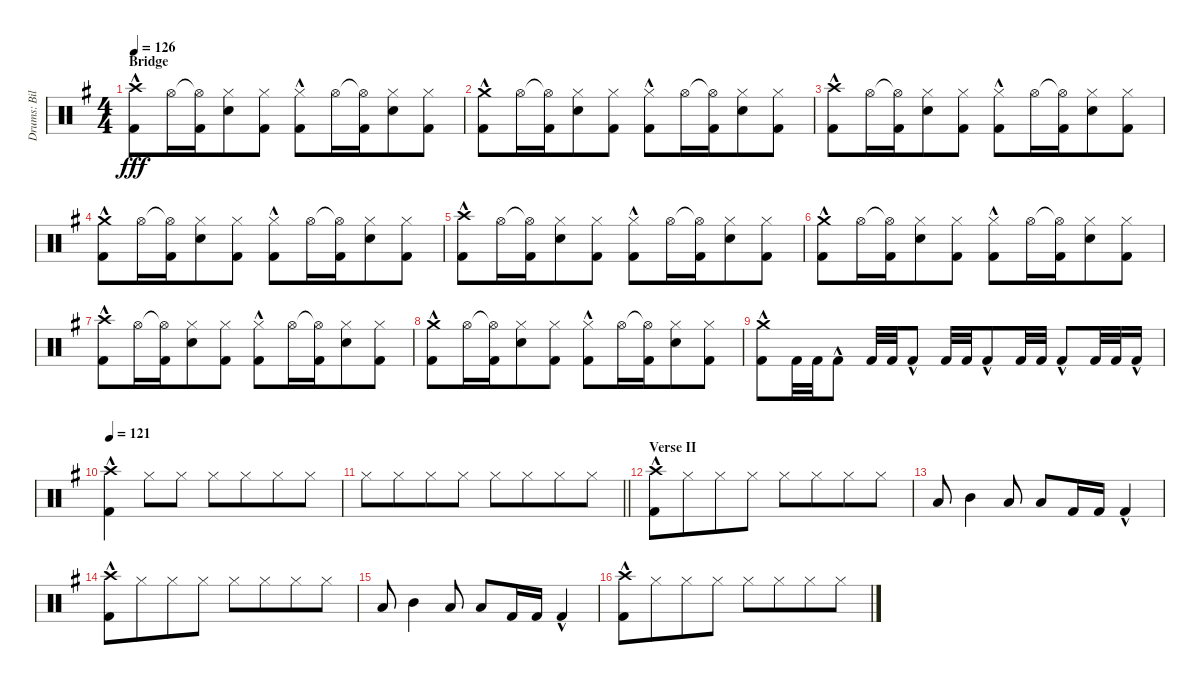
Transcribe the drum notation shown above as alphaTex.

\track ("Drums: Bill" "Drums: Bil") {instrument percussion}
\staff {score}
\articulation defaults
\ts (4 4)
\section ("" "Bridge")
\tempo 126
\clef neutral
\ks g
("Crash high (hit)"{hac} "Kick (hit) 2"{hac}).8{dy fff} "Hi-Hat (open)".16 ("Hi-Hat (open)"{t} "Kick (hit) 2").16{beam merge} ("Hi-Hat (closed)" "Electric Snare (hit)").8 ("Hi-Hat (closed)" "Kick (hit) 2").8 ("Hi-Hat (closed)" "Kick (hit) 2"{hac}).8 "Hi-Hat (open)".16 ("Hi-Hat (open)"{t} "Kick (hit) 2").16{beam merge} ("Hi-Hat (closed)" "Electric Snare (hit)").8 ("Hi-Hat (closed)" "Kick (hit) 2").8 |
("Crash medium (hit)" "Kick (hit) 2"{hac}).8 "Hi-Hat (open)".16 ("Hi-Hat (open)"{t} "Kick (hit) 2").16{beam merge} ("Hi-Hat (closed)" "Electric Snare (hit)").8 ("Hi-Hat (closed)" "Kick (hit) 2").8 ("Hi-Hat (closed)" "Kick (hit) 2"{hac}).8 "Hi-Hat (open)".16 ("Hi-Hat (open)"{t} "Kick (hit) 2").16{beam merge} ("Hi-Hat (closed)" "Electric Snare (hit)").8 ("Hi-Hat (closed)" "Kick (hit) 2").8 |
("Crash high (hit)"{hac} "Kick (hit) 2"{hac}).8 "Hi-Hat (open)".16 ("Hi-Hat (open)"{t} "Kick (hit) 2").16{beam merge} ("Hi-Hat (closed)" "Electric Snare (hit)").8 ("Hi-Hat (closed)" "Kick (hit) 2").8 ("Hi-Hat (closed)" "Kick (hit) 2"{hac}).8 "Hi-Hat (open)".16 ("Hi-Hat (open)"{t} "Kick (hit) 2").16{beam merge} ("Hi-Hat (closed)" "Electric Snare (hit)").8 ("Hi-Hat (closed)" "Kick (hit) 2").8 |
("Crash medium (hit)" "Kick (hit) 2"{hac}).8 "Hi-Hat (open)".16 ("Hi-Hat (open)"{t} "Kick (hit) 2").16{beam merge} ("Hi-Hat (closed)" "Electric Snare (hit)").8 ("Hi-Hat (closed)" "Kick (hit) 2").8 ("Hi-Hat (closed)" "Kick (hit) 2"{hac}).8 "Hi-Hat (open)".16 ("Hi-Hat (open)"{t} "Kick (hit) 2").16{beam merge} ("Hi-Hat (closed)" "Electric Snare (hit)").8 ("Hi-Hat (closed)" "Kick (hit) 2").8 |
("Crash high (hit)"{hac} "Kick (hit) 2"{hac}).8 "Hi-Hat (open)".16 ("Hi-Hat (open)"{t} "Kick (hit) 2").16{beam merge} ("Hi-Hat (closed)" "Electric Snare (hit)").8 ("Hi-Hat (closed)" "Kick (hit) 2").8 ("Hi-Hat (closed)" "Kick (hit) 2"{hac}).8 "Hi-Hat (open)".16 ("Hi-Hat (open)"{t} "Kick (hit) 2").16{beam merge} ("Hi-Hat (closed)" "Electric Snare (hit)").8 ("Hi-Hat (closed)" "Kick (hit) 2").8 |
("Crash medium (hit)" "Kick (hit) 2"{hac}).8 "Hi-Hat (open)".16 ("Hi-Hat (open)"{t} "Kick (hit) 2").16{beam merge} ("Hi-Hat (closed)" "Electric Snare (hit)").8 ("Hi-Hat (closed)" "Kick (hit) 2").8 ("Hi-Hat (closed)" "Kick (hit) 2"{hac}).8 "Hi-Hat (open)".16 ("Hi-Hat (open)"{t} "Kick (hit) 2").16{beam merge} ("Hi-Hat (closed)" "Electric Snare (hit)").8 ("Hi-Hat (closed)" "Kick (hit) 2").8 |
("Crash high (hit)"{hac} "Kick (hit) 2"{hac}).8 "Hi-Hat (open)".16 ("Hi-Hat (open)"{t} "Kick (hit) 2").16{beam merge} ("Hi-Hat (closed)" "Electric Snare (hit)").8 ("Hi-Hat (closed)" "Kick (hit) 2").8 ("Hi-Hat (closed)" "Kick (hit) 2"{hac}).8 "Hi-Hat (open)".16 ("Hi-Hat (open)"{t} "Kick (hit) 2").16{beam merge} ("Hi-Hat (closed)" "Electric Snare (hit)").8 ("Hi-Hat (closed)" "Kick (hit) 2").8 |
("Crash medium (hit)" "Kick (hit) 2"{hac}).8 "Hi-Hat (open)".16 ("Hi-Hat (open)"{t} "Kick (hit) 2").16{beam merge} ("Hi-Hat (closed)" "Electric Snare (hit)").8 ("Hi-Hat (closed)" "Kick (hit) 2").8 ("Hi-Hat (closed)" "Kick (hit) 2"{hac}).8 "Hi-Hat (open)".16 ("Hi-Hat (open)"{t} "Kick (hit) 2").16{beam merge} ("Hi-Hat (closed)" "Electric Snare (hit)").8 ("Hi-Hat (closed)" "Kick (hit) 2").8 |
("Crash medium (hit)" "Kick (hit) 2"{hac}).8 "Kick (hit) 2".32 "Kick (hit) 2".32 "Kick (hit) 2"{hac}.8 "Kick (hit) 2".32 "Kick (hit) 2".32 "Kick (hit) 2"{hac}.8 "Kick (hit) 2".32 "Kick (hit) 2".32 "Kick (hit) 2"{hac}.8 "Kick (hit) 2".32 "Kick (hit) 2".32 "Kick (hit) 2"{hac}.8 "Kick (hit) 2".32 "Kick (hit) 2".32 "Kick (hit) 2"{hac}.16 |
\tempo 121
("Crash high (hit)" "Kick (hit) 2"{hac}).4 "Hi-Hat (closed)".8 "Hi-Hat (closed)".8 "Hi-Hat (closed)".8 "Hi-Hat (closed)".8{beam merge} "Hi-Hat (closed)".8 "Hi-Hat (closed)".8 |
\barLineRight lightlight "Hi-Hat (closed)".8 "Hi-Hat (closed)".8{beam merge} "Hi-Hat (closed)".8 "Hi-Hat (closed)".8 "Hi-Hat (closed)".8 "Hi-Hat (closed)".8{beam merge} "Hi-Hat (closed)".8 "Hi-Hat (closed)".8
|
\section ("" "Verse II")
("Crash high (hit)" "Kick (hit) 2"{hac}).8 "Hi-Hat (closed)".8{beam merge} "Hi-Hat (closed)".8 "Hi-Hat (closed)".8 "Hi-Hat (closed)".8{beam merge} "Hi-Hat (closed)".8{beam merge} "Hi-Hat (closed)".8 "Hi-Hat (closed)".8 |
"Low Tom (hit)".8 "Mid Tom (hit)".4 "Low Tom (hit)".8 "Low Floor Tom (hit)".8 "Kick (hit) 2".16 "Kick (hit) 2".16 "Kick (hit) 2"{hac}.4 |
("Crash high (hit)" "Kick (hit) 2"{hac}).8 "Hi-Hat (closed)".8{beam merge} "Hi-Hat (closed)".8 "Hi-Hat (closed)".8 "Hi-Hat (closed)".8{beam merge} "Hi-Hat (closed)".8{beam merge} "Hi-Hat (closed)".8 "Hi-Hat (closed)".8 |
"Low Tom (hit)".8 "Mid Tom (hit)".4 "Low Tom (hit)".8 "Low Floor Tom (hit)".8 "Kick (hit) 2".16 "Kick (hit) 2".16 "Kick (hit) 2"{hac}.4 |
("Crash high (hit)" "Kick (hit) 2"{hac}).8 "Hi-Hat (closed)".8{beam merge} "Hi-Hat (closed)".8 "Hi-Hat (closed)".8 "Hi-Hat (closed)".8{beam merge} "Hi-Hat (closed)".8{beam merge} "Hi-Hat (closed)".8 "Hi-Hat (closed)".8
